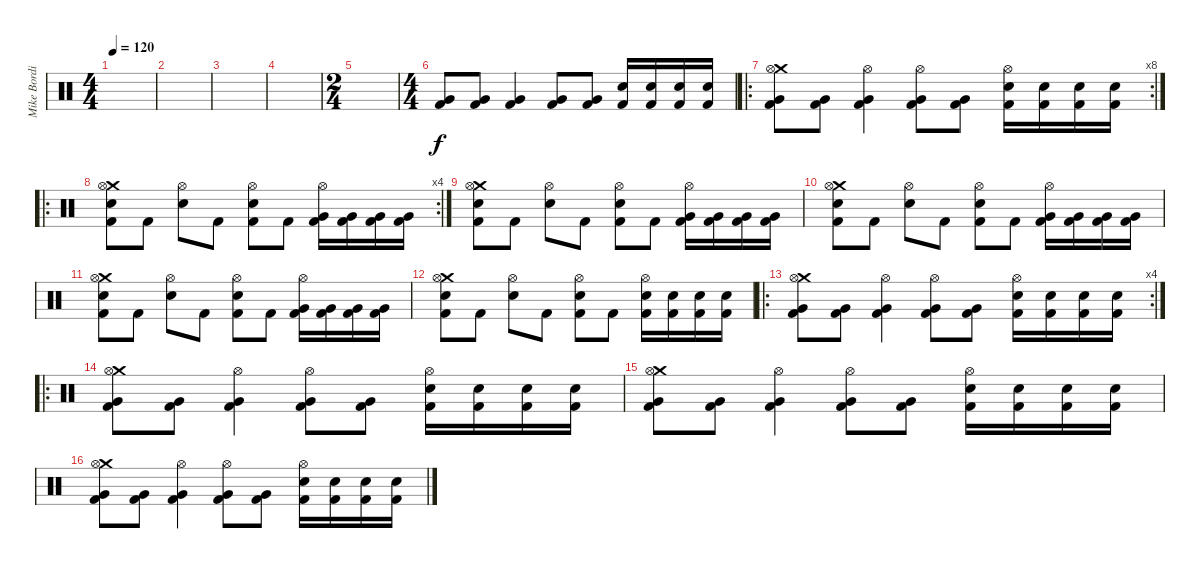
\track ("Mike Bordin" "Mike Bordi") {instrument percussion}
\staff {score}
\articulation defaults
\ts (4 4)
\tempo 120
\clef neutral
\ks c
|
|
|
|
\ts (2 4)
|
\ts (4 4)
("Very Low Tom (hit)" "Kick (hit) 2").8 ("Very Low Tom (hit)" "Kick (hit) 2").8 ("Very Low Tom (hit)" "Kick (hit) 2").4 ("Very Low Tom (hit)" "Kick (hit) 2").8 ("Very Low Tom (hit)" "Kick (hit) 2").8 ("Electric Snare (hit)" "Kick (hit) 2").16 ("Electric Snare (hit)" "Kick (hit) 2").16 ("Electric Snare (hit)" "Kick (hit) 2").16 ("Electric Snare (hit)" "Kick (hit) 2").16 |
\ro
\rc 8
("Crash medium (hit)" "Hi-Hat (open)" "Very Low Tom (hit)" "Kick (hit) 2").8 ("Very Low Tom (hit)" "Kick (hit) 2").8 ("Hi-Hat (open)" "Very Low Tom (hit)" "Kick (hit) 2").4 ("Hi-Hat (open)" "Very Low Tom (hit)" "Kick (hit) 2").8 ("Very Low Tom (hit)" "Kick (hit) 2").8 ("Hi-Hat (open)" "Electric Snare (hit)" "Kick (hit) 2").16 ("Electric Snare (hit)" "Kick (hit) 2").16 ("Electric Snare (hit)" "Kick (hit) 2").16 ("Electric Snare (hit)" "Kick (hit) 2").16 |
\ro
\rc 4
("Crash medium (hit)" "Hi-Hat (open)" "Electric Snare (hit)" "Kick (hit) 2").8 "Kick (hit) 2".8 ("Hi-Hat (open)" "Electric Snare (hit)").8 "Kick (hit) 2".8 ("Hi-Hat (open)" "Electric Snare (hit)" "Kick (hit) 2").8 "Kick (hit) 2".8 ("Hi-Hat (open)" "Very Low Tom (hit)" "Kick (hit) 2").16 ("Very Low Tom (hit)" "Kick (hit) 2").16 ("Very Low Tom (hit)" "Kick (hit) 2").16 ("Very Low Tom (hit)" "Kick (hit) 2").16 |
("Crash medium (hit)" "Hi-Hat (open)" "Electric Snare (hit)" "Kick (hit) 2").8 "Kick (hit) 2".8 ("Hi-Hat (open)" "Electric Snare (hit)").8 "Kick (hit) 2".8 ("Hi-Hat (open)" "Electric Snare (hit)" "Kick (hit) 2").8 "Kick (hit) 2".8 ("Hi-Hat (open)" "Very Low Tom (hit)" "Kick (hit) 2").16 ("Very Low Tom (hit)" "Kick (hit) 2").16 ("Very Low Tom (hit)" "Kick (hit) 2").16 ("Very Low Tom (hit)" "Kick (hit) 2").16 |
("Crash medium (hit)" "Hi-Hat (open)" "Electric Snare (hit)" "Kick (hit) 2").8 "Kick (hit) 2".8 ("Hi-Hat (open)" "Electric Snare (hit)").8 "Kick (hit) 2".8 ("Hi-Hat (open)" "Electric Snare (hit)" "Kick (hit) 2").8 "Kick (hit) 2".8 ("Hi-Hat (open)" "Very Low Tom (hit)" "Kick (hit) 2").16 ("Very Low Tom (hit)" "Kick (hit) 2").16 ("Very Low Tom (hit)" "Kick (hit) 2").16 ("Very Low Tom (hit)" "Kick (hit) 2").16 |
("Crash medium (hit)" "Hi-Hat (open)" "Electric Snare (hit)" "Kick (hit) 2").8 "Kick (hit) 2".8 ("Hi-Hat (open)" "Electric Snare (hit)").8 "Kick (hit) 2".8 ("Hi-Hat (open)" "Electric Snare (hit)" "Kick (hit) 2").8 "Kick (hit) 2".8 ("Hi-Hat (open)" "Very Low Tom (hit)" "Kick (hit) 2").16 ("Very Low Tom (hit)" "Kick (hit) 2").16 ("Very Low Tom (hit)" "Kick (hit) 2").16 ("Very Low Tom (hit)" "Kick (hit) 2").16 |
("Crash medium (hit)" "Hi-Hat (open)" "Electric Snare (hit)" "Kick (hit) 2").8 "Kick (hit) 2".8 ("Hi-Hat (open)" "Electric Snare (hit)").8 "Kick (hit) 2".8 ("Hi-Hat (open)" "Electric Snare (hit)" "Kick (hit) 2").8 "Kick (hit) 2".8 ("Hi-Hat (open)" "Electric Snare (hit)" "Kick (hit) 2").16 ("Electric Snare (hit)" "Kick (hit) 2").16 ("Electric Snare (hit)" "Kick (hit) 2").16 ("Electric Snare (hit)" "Kick (hit) 2").16 |
\ro
\rc 4
("Crash medium (hit)" "Hi-Hat (open)" "Very Low Tom (hit)" "Kick (hit) 2").8 ("Very Low Tom (hit)" "Kick (hit) 2").8 ("Hi-Hat (open)" "Very Low Tom (hit)" "Kick (hit) 2").4 ("Hi-Hat (open)" "Very Low Tom (hit)" "Kick (hit) 2").8 ("Very Low Tom (hit)" "Kick (hit) 2").8 ("Hi-Hat (open)" "Electric Snare (hit)" "Kick (hit) 2").16 ("Electric Snare (hit)" "Kick (hit) 2").16 ("Electric Snare (hit)" "Kick (hit) 2").16 ("Electric Snare (hit)" "Kick (hit) 2").16 |
\ro
("Crash medium (hit)" "Hi-Hat (open)" "Very Low Tom (hit)" "Kick (hit) 2").8 ("Very Low Tom (hit)" "Kick (hit) 2").8 ("Hi-Hat (open)" "Very Low Tom (hit)" "Kick (hit) 2").4 ("Hi-Hat (open)" "Very Low Tom (hit)" "Kick (hit) 2").8 ("Very Low Tom (hit)" "Kick (hit) 2").8 ("Hi-Hat (open)" "Electric Snare (hit)" "Kick (hit) 2").16 ("Electric Snare (hit)" "Kick (hit) 2").16 ("Electric Snare (hit)" "Kick (hit) 2").16 ("Electric Snare (hit)" "Kick (hit) 2").16 |
("Crash medium (hit)" "Hi-Hat (open)" "Very Low Tom (hit)" "Kick (hit) 2").8 ("Very Low Tom (hit)" "Kick (hit) 2").8 ("Hi-Hat (open)" "Very Low Tom (hit)" "Kick (hit) 2").4 ("Hi-Hat (open)" "Very Low Tom (hit)" "Kick (hit) 2").8 ("Very Low Tom (hit)" "Kick (hit) 2").8 ("Hi-Hat (open)" "Electric Snare (hit)" "Kick (hit) 2").16 ("Electric Snare (hit)" "Kick (hit) 2").16 ("Electric Snare (hit)" "Kick (hit) 2").16 ("Electric Snare (hit)" "Kick (hit) 2").16 |
("Crash medium (hit)" "Hi-Hat (open)" "Very Low Tom (hit)" "Kick (hit) 2").8 ("Very Low Tom (hit)" "Kick (hit) 2").8 ("Hi-Hat (open)" "Very Low Tom (hit)" "Kick (hit) 2").4 ("Hi-Hat (open)" "Very Low Tom (hit)" "Kick (hit) 2").8 ("Very Low Tom (hit)" "Kick (hit) 2").8 ("Hi-Hat (open)" "Electric Snare (hit)" "Kick (hit) 2").16 ("Electric Snare (hit)" "Kick (hit) 2").16 ("Electric Snare (hit)" "Kick (hit) 2").16 ("Electric Snare (hit)" "Kick (hit) 2").16
